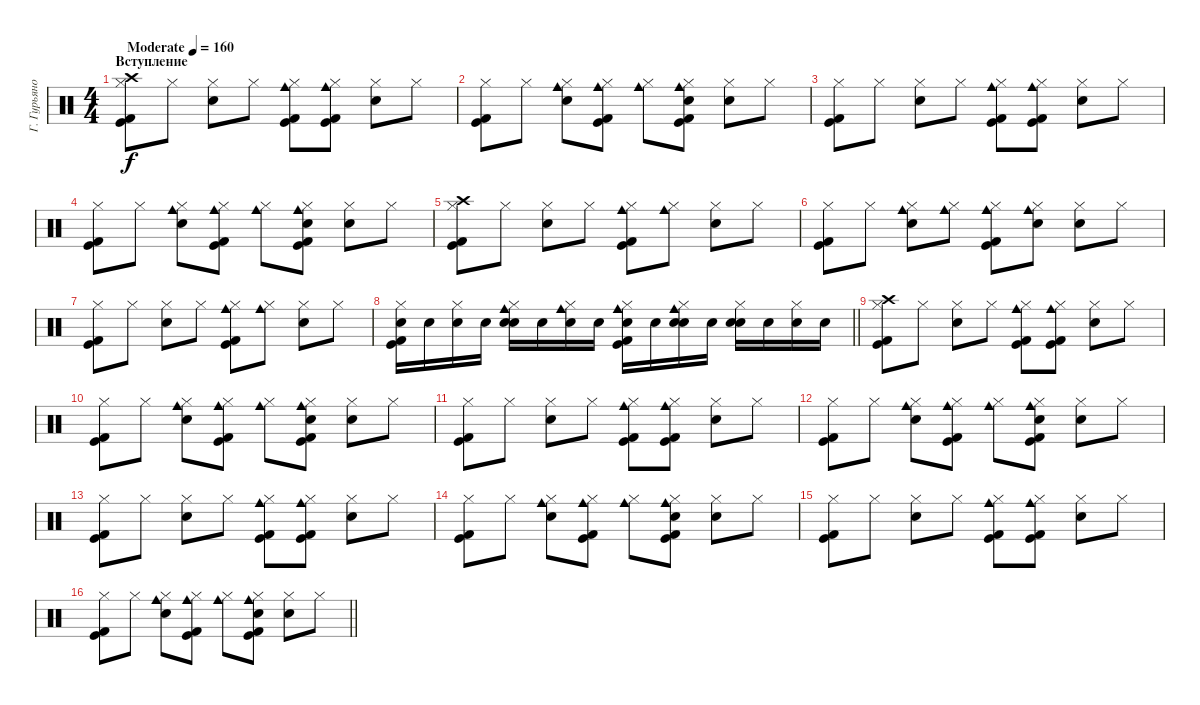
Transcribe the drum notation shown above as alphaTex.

\track ("Г. Гурьянов" "Г. Гурьяно") {instrument percussion}
\staff
\articulation defaults
\ts (4 4)
\section ("" "Вступление")
\tempo (160 "Moderate")
\clef neutral
\ks c
("Hi-Hat (closed)" "Crash high (hit)" "Kick (hit)" "Kick (hit) 2").8{dy f} "Hi-Hat (closed)".8 ("Hi-Hat (closed)" "Snare (hit) 2").8 "Hi-Hat (closed)".8 ("Hi-Hat (closed)" "Cowbell medium (hit)" "Kick (hit)" "Kick (hit) 2").8 ("Hi-Hat (closed)" "Cowbell medium (hit)" "Kick (hit)" "Kick (hit) 2").8 ("Hi-Hat (closed)" "Snare (hit) 2").8 "Hi-Hat (closed)".8 |
("Hi-Hat (closed)" "Kick (hit)" "Kick (hit) 2").8 "Hi-Hat (closed)".8 ("Hi-Hat (closed)" "Cowbell medium (hit)" "Snare (hit) 2").8 ("Hi-Hat (closed)" "Cowbell medium (hit)" "Kick (hit)" "Kick (hit) 2").8 ("Hi-Hat (closed)" "Cowbell medium (hit)").8 ("Hi-Hat (closed)" "Cowbell medium (hit)" "Hand Clap (hit)" "Kick (hit)" "Kick (hit) 2").8 ("Hi-Hat (closed)" "Snare (hit) 2").8 "Hi-Hat (closed)".8 |
("Hi-Hat (closed)" "Kick (hit)" "Kick (hit) 2").8 "Hi-Hat (closed)".8 ("Hi-Hat (closed)" "Snare (hit) 2").8 "Hi-Hat (closed)".8 ("Hi-Hat (closed)" "Cowbell medium (hit)" "Kick (hit)" "Kick (hit) 2").8 ("Hi-Hat (closed)" "Cowbell medium (hit)" "Kick (hit)" "Kick (hit) 2").8 ("Hi-Hat (closed)" "Snare (hit) 2").8 "Hi-Hat (closed)".8 |
("Hi-Hat (closed)" "Kick (hit)" "Kick (hit) 2").8 "Hi-Hat (closed)".8 ("Hi-Hat (closed)" "Cowbell medium (hit)" "Snare (hit) 2").8 ("Hi-Hat (closed)" "Cowbell medium (hit)" "Kick (hit)" "Kick (hit) 2").8 ("Hi-Hat (closed)" "Cowbell medium (hit)").8 ("Hi-Hat (closed)" "Cowbell medium (hit)" "Hand Clap (hit)" "Kick (hit)" "Kick (hit) 2").8 ("Hi-Hat (closed)" "Snare (hit) 2").8 "Hi-Hat (closed)".8 |
("Hi-Hat (closed)" "Crash high (hit)" "Kick (hit)" "Kick (hit) 2").8 "Hi-Hat (closed)".8 ("Hi-Hat (closed)" "Snare (hit) 2").8 "Hi-Hat (closed)".8 ("Hi-Hat (closed)" "Cowbell medium (hit)" "Kick (hit)" "Kick (hit) 2").8 ("Hi-Hat (closed)" "Cowbell medium (hit)").8 ("Hi-Hat (closed)" "Snare (hit) 2").8 "Hi-Hat (closed)".8 |
("Hi-Hat (closed)" "Kick (hit)" "Kick (hit) 2").8 "Hi-Hat (closed)".8 ("Hi-Hat (closed)" "Cowbell medium (hit)" "Snare (hit) 2").8 ("Hi-Hat (closed)" "Cowbell medium (hit)").8 ("Hi-Hat (closed)" "Cowbell medium (hit)" "Kick (hit)" "Kick (hit) 2").8 ("Hi-Hat (closed)" "Cowbell medium (hit)" "Hand Clap (hit)").8 ("Hi-Hat (closed)" "Snare (hit) 2").8 "Hi-Hat (closed)".8 |
("Hi-Hat (closed)" "Kick (hit)" "Kick (hit) 2").8 "Hi-Hat (closed)".8 ("Hi-Hat (closed)" "Snare (hit) 2").8 "Hi-Hat (closed)".8 ("Hi-Hat (closed)" "Cowbell medium (hit)" "Kick (hit)" "Kick (hit) 2").8 ("Hi-Hat (closed)" "Cowbell medium (hit)").8 ("Hi-Hat (closed)" "Snare (hit) 2").8 "Hi-Hat (closed)".8 |
\barLineRight lightlight
("Hi-Hat (closed)" "Electric Snare (hit)" "Kick (hit)" "Kick (hit) 2").16 "Electric Snare (hit)".16 ("Hi-Hat (closed)" "Electric Snare (hit)").16 "Electric Snare (hit)".16 ("Hi-Hat (closed)" "Electric Snare (hit)" "Snare (hit) 2" "Cowbell medium (hit)").16 "Electric Snare (hit)".16 ("Hi-Hat (closed)" "Electric Snare (hit)" "Cowbell medium (hit)").16 "Electric Snare (hit)".16 ("Hi-Hat (closed)" "Electric Snare (hit)" "Cowbell medium (hit)" "Kick (hit)" "Kick (hit) 2").16 "Electric Snare (hit)".16 ("Hi-Hat (closed)" "Electric Snare (hit)" "Cowbell medium (hit)" "Hand Clap (hit)").16 "Electric Snare (hit)".16 ("Hi-Hat (closed)" "Electric Snare (hit)" "Snare (hit) 2").16 "Electric Snare (hit)".16 ("Hi-Hat (closed)" "Electric Snare (hit)").16 "Electric Snare (hit)".16 |
("Hi-Hat (closed)" "Crash high (hit)" "Kick (hit)" "Kick (hit) 2").8 "Hi-Hat (closed)".8 ("Hi-Hat (closed)" "Snare (hit) 2").8 "Hi-Hat (closed)".8 ("Hi-Hat (closed)" "Cowbell medium (hit)" "Kick (hit)" "Kick (hit) 2").8 ("Hi-Hat (closed)" "Cowbell medium (hit)" "Kick (hit)" "Kick (hit) 2").8 ("Hi-Hat (closed)" "Snare (hit) 2").8 "Hi-Hat (closed)".8 |
("Hi-Hat (closed)" "Kick (hit)" "Kick (hit) 2").8 "Hi-Hat (closed)".8 ("Hi-Hat (closed)" "Cowbell medium (hit)" "Snare (hit) 2").8 ("Hi-Hat (closed)" "Cowbell medium (hit)" "Kick (hit)" "Kick (hit) 2").8 ("Hi-Hat (closed)" "Cowbell medium (hit)").8 ("Hi-Hat (closed)" "Cowbell medium (hit)" "Hand Clap (hit)" "Kick (hit)" "Kick (hit) 2").8 ("Hi-Hat (closed)" "Snare (hit) 2").8 "Hi-Hat (closed)".8 |
("Hi-Hat (closed)" "Kick (hit)" "Kick (hit) 2").8 "Hi-Hat (closed)".8 ("Hi-Hat (closed)" "Snare (hit) 2").8 "Hi-Hat (closed)".8 ("Hi-Hat (closed)" "Cowbell medium (hit)" "Kick (hit)" "Kick (hit) 2").8 ("Hi-Hat (closed)" "Cowbell medium (hit)" "Kick (hit)" "Kick (hit) 2").8 ("Hi-Hat (closed)" "Snare (hit) 2").8 "Hi-Hat (closed)".8 |
("Hi-Hat (closed)" "Kick (hit)" "Kick (hit) 2").8 "Hi-Hat (closed)".8 ("Hi-Hat (closed)" "Cowbell medium (hit)" "Snare (hit) 2").8 ("Hi-Hat (closed)" "Cowbell medium (hit)" "Kick (hit)" "Kick (hit) 2").8 ("Hi-Hat (closed)" "Cowbell medium (hit)").8 ("Hi-Hat (closed)" "Cowbell medium (hit)" "Hand Clap (hit)" "Kick (hit)" "Kick (hit) 2").8 ("Hi-Hat (closed)" "Snare (hit) 2").8 "Hi-Hat (closed)".8 |
("Hi-Hat (closed)" "Kick (hit)" "Kick (hit) 2").8 "Hi-Hat (closed)".8 ("Hi-Hat (closed)" "Snare (hit) 2").8 "Hi-Hat (closed)".8 ("Hi-Hat (closed)" "Cowbell medium (hit)" "Kick (hit)" "Kick (hit) 2").8 ("Hi-Hat (closed)" "Cowbell medium (hit)" "Kick (hit)" "Kick (hit) 2").8 ("Hi-Hat (closed)" "Snare (hit) 2").8 "Hi-Hat (closed)".8 |
("Hi-Hat (closed)" "Kick (hit)" "Kick (hit) 2").8 "Hi-Hat (closed)".8 ("Hi-Hat (closed)" "Cowbell medium (hit)" "Snare (hit) 2").8 ("Hi-Hat (closed)" "Cowbell medium (hit)" "Kick (hit)" "Kick (hit) 2").8 ("Hi-Hat (closed)" "Cowbell medium (hit)").8 ("Hi-Hat (closed)" "Cowbell medium (hit)" "Hand Clap (hit)" "Kick (hit)" "Kick (hit) 2").8 ("Hi-Hat (closed)" "Snare (hit) 2").8 "Hi-Hat (closed)".8 |
("Hi-Hat (closed)" "Kick (hit)" "Kick (hit) 2").8 "Hi-Hat (closed)".8 ("Hi-Hat (closed)" "Snare (hit) 2").8 "Hi-Hat (closed)".8 ("Hi-Hat (closed)" "Cowbell medium (hit)" "Kick (hit)" "Kick (hit) 2").8 ("Hi-Hat (closed)" "Cowbell medium (hit)" "Kick (hit)" "Kick (hit) 2").8 ("Hi-Hat (closed)" "Snare (hit) 2").8 "Hi-Hat (closed)".8 |
\barLineRight lightlight
("Hi-Hat (closed)" "Kick (hit)" "Kick (hit) 2").8 "Hi-Hat (closed)".8 ("Hi-Hat (closed)" "Cowbell medium (hit)" "Snare (hit) 2").8 ("Hi-Hat (closed)" "Cowbell medium (hit)" "Kick (hit)" "Kick (hit) 2").8 ("Hi-Hat (closed)" "Cowbell medium (hit)").8 ("Hi-Hat (closed)" "Cowbell medium (hit)" "Hand Clap (hit)" "Kick (hit)" "Kick (hit) 2").8 ("Hi-Hat (closed)" "Snare (hit) 2").8 "Hi-Hat (closed)".8
